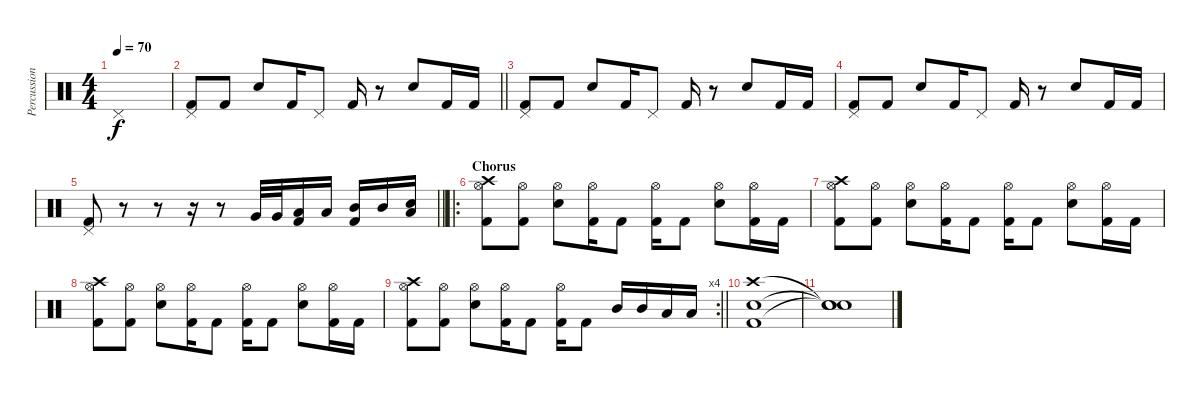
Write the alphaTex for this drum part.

\track ("Percussion" "Percussion") {instrument percussion}
\staff {score}
\articulation defaults
\ts (4 4)
\tempo 70
\clef neutral
\ks c "Pedal Hi-Hat (hit)".1{dy f}
|
\barLineRight lightlight
("Kick (hit) 2" "Pedal Hi-Hat (hit)").8 "Kick (hit) 2".8 "Electric Snare (hit)".8 "Kick (hit) 2".16 "Pedal Hi-Hat (hit)".8 "Kick (hit) 2".16 r.8 "Electric Snare (hit)".8 "Kick (hit) 2".16 "Kick (hit) 2".16 |
("Kick (hit) 2" "Pedal Hi-Hat (hit)").8 "Kick (hit) 2".8 "Electric Snare (hit)".8 "Kick (hit) 2".16 "Pedal Hi-Hat (hit)".8 "Kick (hit) 2".16 r.8 "Electric Snare (hit)".8 "Kick (hit) 2".16 "Kick (hit) 2".16 |
("Kick (hit) 2" "Pedal Hi-Hat (hit)").8 "Kick (hit) 2".8 "Electric Snare (hit)".8 "Kick (hit) 2".16 "Pedal Hi-Hat (hit)".8 "Kick (hit) 2".16 r.8 "Electric Snare (hit)".8 "Kick (hit) 2".16 "Kick (hit) 2".16 |
\barLineRight lightlight
("Kick (hit) 2" "Pedal Hi-Hat (hit)").8 r.8 r.8 r.16 r.8 "Very Low Tom (hit)".32 "Very Low Tom (hit)".32 ("Low Tom (hit)" "Kick (hit) 2").16 "Low Tom (hit)".16 ("Mid Tom (hit)" "Kick (hit) 2").16 "Mid Tom (hit)".16 ("Low Floor Tom (hit)" "Electric Snare (hit)").16 |
\ro
\section ("" "Chorus")
("Crash high (hit)" "Kick (hit) 2" "Hi-Hat (open)").8 ("Kick (hit) 2" "Hi-Hat (open)").8 ("Snare (hit) 2" "Hi-Hat (open)").8 ("Kick (hit) 2" "Hi-Hat (open)").16 "Kick (hit) 2".8 ("Kick (hit) 2" "Hi-Hat (open)").16 "Kick (hit) 2".8 ("Snare (hit) 2" "Hi-Hat (open)").8 ("Kick (hit) 2" "Hi-Hat (open)").16 "Kick (hit) 2".16 |
("Crash high (hit)" "Kick (hit) 2" "Hi-Hat (open)").8 ("Kick (hit) 2" "Hi-Hat (open)").8 ("Snare (hit) 2" "Hi-Hat (open)").8 ("Kick (hit) 2" "Hi-Hat (open)").16 "Kick (hit) 2".8 ("Kick (hit) 2" "Hi-Hat (open)").16 "Kick (hit) 2".8 ("Snare (hit) 2" "Hi-Hat (open)").8 ("Kick (hit) 2" "Hi-Hat (open)").16 "Kick (hit) 2".16 |
("Crash high (hit)" "Kick (hit) 2" "Hi-Hat (open)").8 ("Kick (hit) 2" "Hi-Hat (open)").8 ("Snare (hit) 2" "Hi-Hat (open)").8 ("Kick (hit) 2" "Hi-Hat (open)").16 "Kick (hit) 2".8 ("Kick (hit) 2" "Hi-Hat (open)").16 "Kick (hit) 2".8 ("Snare (hit) 2" "Hi-Hat (open)").8 ("Kick (hit) 2" "Hi-Hat (open)").16 "Kick (hit) 2".16 |
\rc 4
\barLineRight lightlight
("Crash high (hit)" "Kick (hit) 2" "Hi-Hat (open)").8 ("Kick (hit) 2" "Hi-Hat (open)").8 ("Snare (hit) 2" "Hi-Hat (open)").8 ("Kick (hit) 2" "Hi-Hat (open)").16 "Kick (hit) 2".8 ("Kick (hit) 2" "Hi-Hat (open)").16 "Kick (hit) 2".8 "Mid Tom (hit)".16 "Mid Tom (hit)".16 "Low Tom (hit)".16 "Low Tom (hit)".16 |
("Crash high (hit)" "Electric Snare (hit)" "Kick (hit) 2").1 |
("Snare (hit)"{t} "Snare (hit)"{t} "Snare (hit)"{t}).1
